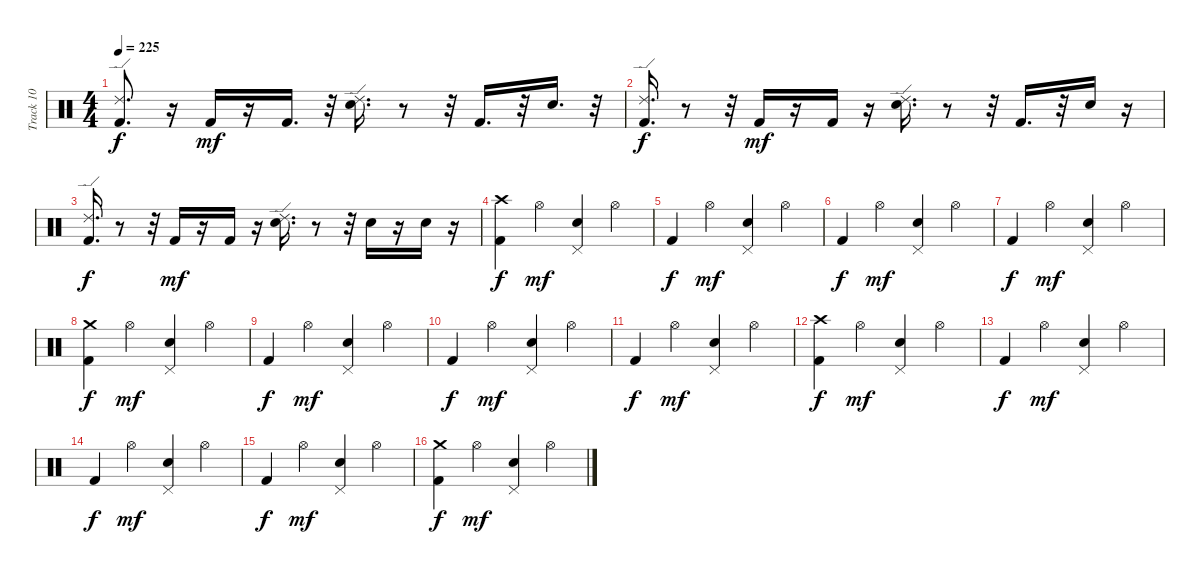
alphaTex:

\track ("Track 10" "Track 10") {instrument percussion}
\staff {score}
\articulation defaults
\ts (4 4)
\tempo 225
\clef neutral
\ks c
("Ride (edge) 2" "Kick (hit) 2").8{d dy f} r.16 "Kick (hit) 2".16{dy mf} r.16 "Kick (hit) 2".16{d} r.32 ("Ride (edge) 2" "Electric Snare (hit)").16{d} r.8 r.32 "Kick (hit) 2".16{d} r.32 "Electric Snare (hit)".16{d} r.32 |
("Ride (edge) 2" "Kick (hit) 2").16{d dy f} r.8 r.32 "Kick (hit) 2".16{dy mf} r.16 "Kick (hit) 2".16 r.16 ("Ride (edge) 2" "Electric Snare (hit)").16{d} r.8 r.32 "Kick (hit) 2".16{d} r.32 "Electric Snare (hit)".16 r.16 |
("Ride (edge) 2" "Kick (hit) 2").16{d dy f} r.8 r.32 "Kick (hit) 2".16{dy mf} r.16 "Kick (hit) 2".16 r.16 ("Ride (edge) 2" "Electric Snare (hit)").16{d} r.8 r.32 "Electric Snare (hit)".16 r.16 "Electric Snare (hit)".16 r.16 |
("Crash high (hit)" "Kick (hit) 2").4{dy f} "Hi-Hat (open)".4{dy mf} ("Electric Snare (hit)" "Pedal Hi-Hat (hit)").4 "Hi-Hat (open)".4 |
"Kick (hit) 2".4{dy f} "Hi-Hat (open)".4{dy mf} ("Electric Snare (hit)" "Pedal Hi-Hat (hit)").4 "Hi-Hat (open)".4 |
"Kick (hit) 2".4{dy f} "Hi-Hat (open)".4{dy mf} ("Electric Snare (hit)" "Pedal Hi-Hat (hit)").4 "Hi-Hat (open)".4 |
"Kick (hit) 2".4{dy f} "Hi-Hat (open)".4{dy mf} ("Electric Snare (hit)" "Pedal Hi-Hat (hit)").4 "Hi-Hat (open)".4 |
("Kick (hit) 2" "Crash medium (hit)").4{dy f} "Hi-Hat (open)".4{dy mf} ("Electric Snare (hit)" "Pedal Hi-Hat (hit)").4 "Hi-Hat (open)".4 |
"Kick (hit) 2".4{dy f} "Hi-Hat (open)".4{dy mf} ("Electric Snare (hit)" "Pedal Hi-Hat (hit)").4 "Hi-Hat (open)".4 |
"Kick (hit) 2".4{dy f} "Hi-Hat (open)".4{dy mf} ("Electric Snare (hit)" "Pedal Hi-Hat (hit)").4 "Hi-Hat (open)".4 |
"Kick (hit) 2".4{dy f} "Hi-Hat (open)".4{dy mf} ("Electric Snare (hit)" "Pedal Hi-Hat (hit)").4 "Hi-Hat (open)".4 |
("Crash high (hit)" "Kick (hit) 2").4{dy f} "Hi-Hat (open)".4{dy mf} ("Electric Snare (hit)" "Pedal Hi-Hat (hit)").4 "Hi-Hat (open)".4 |
"Kick (hit) 2".4{dy f} "Hi-Hat (open)".4{dy mf} ("Electric Snare (hit)" "Pedal Hi-Hat (hit)").4 "Hi-Hat (open)".4 |
"Kick (hit) 2".4{dy f} "Hi-Hat (open)".4{dy mf} ("Electric Snare (hit)" "Pedal Hi-Hat (hit)").4 "Hi-Hat (open)".4 |
"Kick (hit) 2".4{dy f} "Hi-Hat (open)".4{dy mf} ("Electric Snare (hit)" "Pedal Hi-Hat (hit)").4 "Hi-Hat (open)".4 |
("Kick (hit) 2" "Crash medium (hit)").4{dy f} "Hi-Hat (open)".4{dy mf} ("Electric Snare (hit)" "Pedal Hi-Hat (hit)").4 "Hi-Hat (open)".4
